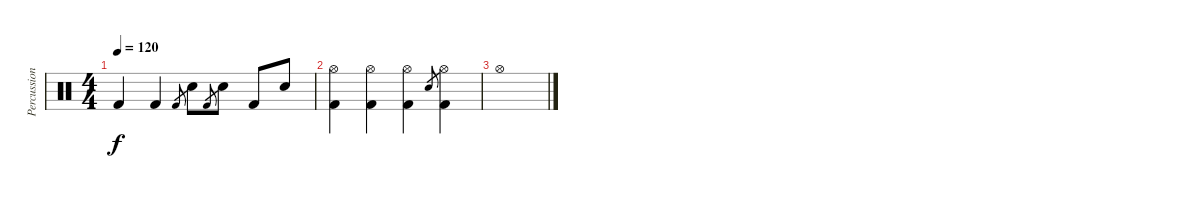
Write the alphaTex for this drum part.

\track ("Percussion" "Percussion") {instrument percussion}
\staff {score}
\articulation defaults
\ts (4 4)
\tempo 120
\clef neutral
\ks c "Kick (hit) 2".4{dy f} "Kick (hit) 2".4 "Kick (hit) 2".8{gr} "Snare (hit) 2".8 "Kick (hit) 2".8{gr} "Snare (hit) 2".8 "Kick (hit) 2".8 "Snare (hit) 2".8
|
("Hi-Hat (open)" "Kick (hit) 2").4 ("Hi-Hat (open)" "Kick (hit) 2").4 ("Hi-Hat (open)" "Kick (hit) 2").4 "Snare (hit) 2".8{gr} ("Hi-Hat (open)" "Kick (hit) 2").4 |
"Hi-Hat (open)".1
